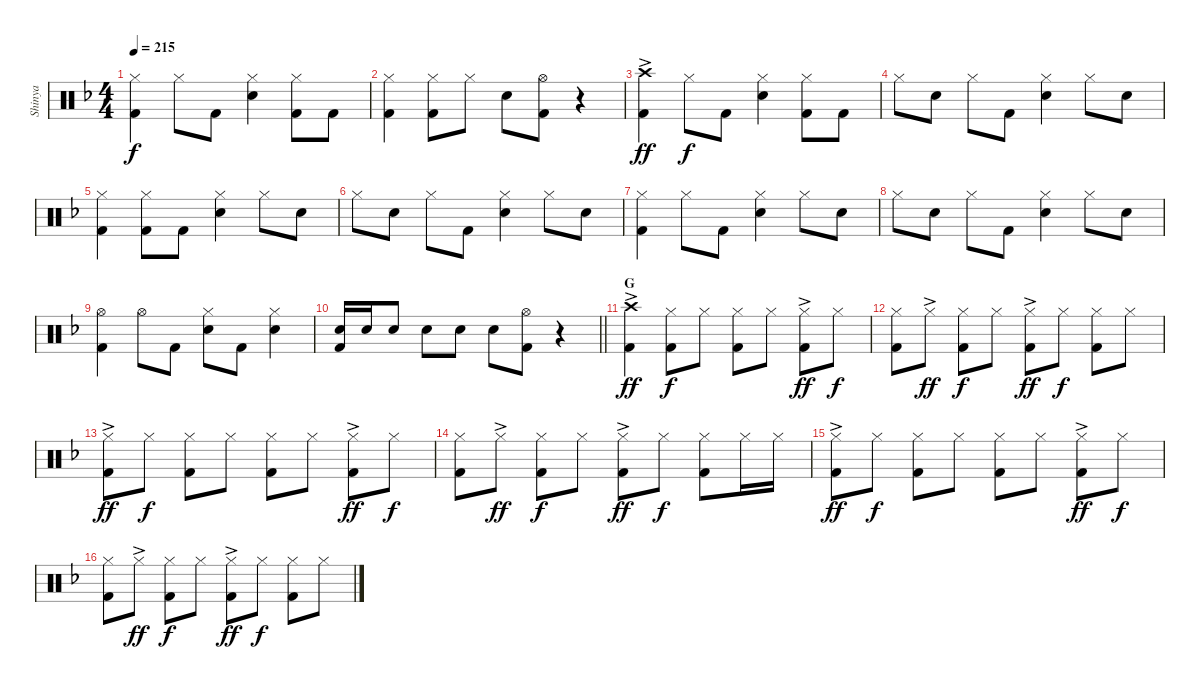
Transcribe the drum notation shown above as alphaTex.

\track ("Shinya" "Shinya") {instrument percussion}
\staff {score}
\articulation defaults
\ts (4 4)
\tempo 215
\clef neutral
\ks f
("Hi-Hat (closed)" "Kick (hit) 2").4{dy f} "Hi-Hat (closed)".8 "Kick (hit) 2".8 ("Hi-Hat (closed)" "Snare (hit) 2").4 ("Hi-Hat (closed)" "Kick (hit) 2").8 "Kick (hit) 2".8 |
("Hi-Hat (closed)" "Kick (hit) 2").4 ("Hi-Hat (closed)" "Kick (hit) 2").8 "Hi-Hat (closed)".8 "Snare (hit) 2".8 ("Hi-Hat (open)" "Kick (hit) 2").8 r.4 |
("Crash high (hit)"{ac} "Kick (hit) 2").4{dy ff} "Hi-Hat (closed)".8{dy f} "Kick (hit) 2".8 ("Hi-Hat (closed)" "Snare (hit) 2").4 ("Hi-Hat (closed)" "Kick (hit) 2").8 "Kick (hit) 2".8 |
"Hi-Hat (closed)".8 "Snare (hit) 2".8 "Hi-Hat (closed)".8 "Kick (hit) 2".8 ("Hi-Hat (closed)" "Snare (hit) 2").4 "Hi-Hat (closed)".8 "Snare (hit) 2".8 |
("Hi-Hat (closed)" "Kick (hit) 2").4 ("Hi-Hat (closed)" "Kick (hit) 2").8 "Kick (hit) 2".8 ("Hi-Hat (closed)" "Snare (hit) 2").4 "Hi-Hat (closed)".8 "Snare (hit) 2".8 |
"Hi-Hat (closed)".8 "Snare (hit) 2".8 "Hi-Hat (closed)".8 "Kick (hit) 2".8 ("Hi-Hat (closed)" "Snare (hit) 2").4 "Hi-Hat (closed)".8 "Snare (hit) 2".8 |
("Hi-Hat (closed)" "Kick (hit) 2").4 "Hi-Hat (closed)".8 "Kick (hit) 2".8 ("Hi-Hat (closed)" "Snare (hit) 2").4 "Hi-Hat (closed)".8 "Snare (hit) 2".8 |
"Hi-Hat (closed)".8 "Snare (hit) 2".8 "Hi-Hat (closed)".8 "Kick (hit) 2".8 ("Hi-Hat (closed)" "Snare (hit) 2").4 "Hi-Hat (closed)".8 "Snare (hit) 2".8 |
("Hi-Hat (open)" "Kick (hit) 2").4 "Hi-Hat (open)".8 "Kick (hit) 2".8 ("Hi-Hat (closed)" "Snare (hit) 2").8 "Kick (hit) 2".8 ("Hi-Hat (closed)" "Snare (hit) 2").4 |
\barLineRight lightlight
("Snare (hit) 2" "Kick (hit) 2").16 "Snare (hit) 2".16 "Snare (hit) 2".8 "Snare (hit) 2".8 "Snare (hit) 2".8 "Snare (hit) 2".8 ("Hi-Hat (open)" "Kick (hit) 2").8 r.4 |
\section ("" "G")
("Crash high (hit)"{ac} "Kick (hit) 2").4{dy ff} ("Hi-Hat (closed)" "Kick (hit) 2").8{dy f} "Hi-Hat (closed)".8 ("Hi-Hat (closed)" "Kick (hit) 2").8 "Hi-Hat (closed)".8 ("Hi-Hat (closed)"{ac} "Kick (hit) 2").8{dy ff} "Hi-Hat (closed)".8{dy f} |
("Hi-Hat (closed)" "Kick (hit) 2").8 "Hi-Hat (closed)"{ac}.8{dy ff} ("Hi-Hat (closed)" "Kick (hit) 2").8{dy f} "Hi-Hat (closed)".8 ("Hi-Hat (closed)"{ac} "Kick (hit) 2").8{dy ff} "Hi-Hat (closed)".8{dy f} ("Hi-Hat (closed)" "Kick (hit) 2").8 "Hi-Hat (closed)".8 |
("Hi-Hat (closed)"{ac} "Kick (hit) 2").8{dy ff} "Hi-Hat (closed)".8{dy f} ("Hi-Hat (closed)" "Kick (hit) 2").8 "Hi-Hat (closed)".8 ("Hi-Hat (closed)" "Kick (hit) 2").8 "Hi-Hat (closed)".8 ("Hi-Hat (closed)"{ac} "Kick (hit) 2").8{dy ff} "Hi-Hat (closed)".8{dy f} |
("Hi-Hat (closed)" "Kick (hit) 2").8 "Hi-Hat (closed)"{ac}.8{dy ff} ("Hi-Hat (closed)" "Kick (hit) 2").8{dy f} "Hi-Hat (closed)".8 ("Hi-Hat (closed)"{ac} "Kick (hit) 2").8{dy ff} "Hi-Hat (closed)".8{dy f} ("Hi-Hat (closed)" "Kick (hit) 2").8 "Hi-Hat (closed)".16 "Hi-Hat (closed)".16 |
("Hi-Hat (closed)"{ac} "Kick (hit) 2").8{dy ff} "Hi-Hat (closed)".8{dy f} ("Hi-Hat (closed)" "Kick (hit) 2").8 "Hi-Hat (closed)".8 ("Hi-Hat (closed)" "Kick (hit) 2").8 "Hi-Hat (closed)".8 ("Hi-Hat (closed)"{ac} "Kick (hit) 2").8{dy ff} "Hi-Hat (closed)".8{dy f} |
("Hi-Hat (closed)" "Kick (hit) 2").8 "Hi-Hat (closed)"{ac}.8{dy ff} ("Hi-Hat (closed)" "Kick (hit) 2").8{dy f} "Hi-Hat (closed)".8 ("Hi-Hat (closed)"{ac} "Kick (hit) 2").8{dy ff} "Hi-Hat (closed)".8{dy f} ("Hi-Hat (closed)" "Kick (hit) 2").8 "Hi-Hat (closed)".8
